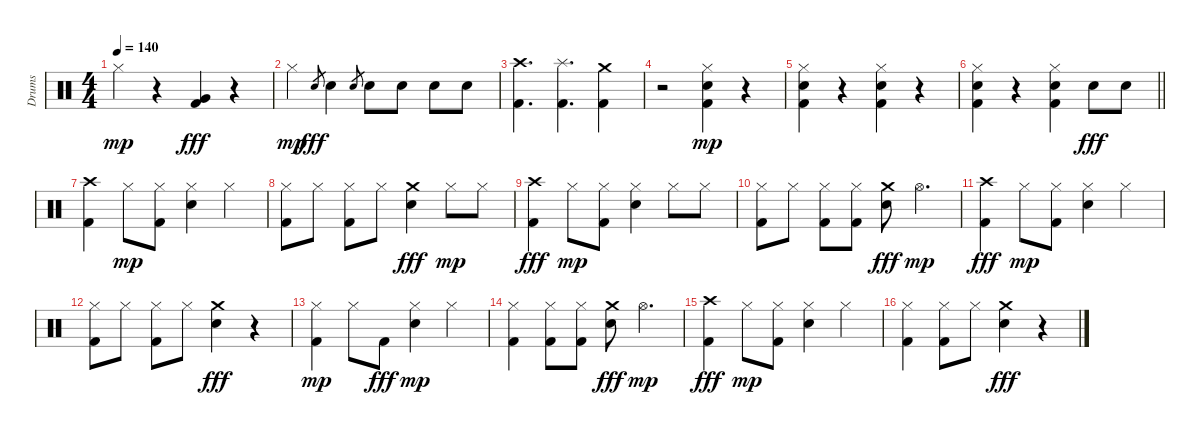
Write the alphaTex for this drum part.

\track ("Drums" "Drums") {instrument percussion}
\staff {score}
\articulation defaults
\ts (4 4)
\tempo 140
\clef neutral
\ks c "Hi-Hat (closed)".4{dy mp}
r.4 ("Kick (hit) 2" "Very Low Tom (hit)").4{dy fff} r.4 |
"Hi-Hat (closed)".4{dy mp} "Electric Snare (hit)".8{gr dy fff} "Electric Snare (hit)".4 "Electric Snare (hit)".8{gr} "Electric Snare (hit)".8 "Electric Snare (hit)".8 "Electric Snare (hit)".8 "Electric Snare (hit)".8 |
("Kick (hit) 2" "Crash high (hit)").4{d} ("Kick (hit) 2" "Splash (hit)").4{d} ("Kick (hit) 2" "Crash medium (hit)").4 |
r.2 ("Kick (hit) 2" "Electric Snare (hit)" "Hi-Hat (closed)").4{dy mp} r.4 |
("Kick (hit) 2" "Electric Snare (hit)" "Hi-Hat (closed)").4 r.4 ("Kick (hit) 2" "Electric Snare (hit)" "Hi-Hat (closed)").4 r.4 |
\barLineRight lightlight
("Kick (hit) 2" "Electric Snare (hit)" "Hi-Hat (closed)").4 r.4 ("Kick (hit) 2" "Electric Snare (hit)" "Hi-Hat (closed)").4 "Electric Snare (hit)".8{dy fff} "Electric Snare (hit)".8 |
("Kick (hit) 2" "Crash high (hit)").4 "Hi-Hat (closed)".8{dy mp} ("Kick (hit) 2" "Hi-Hat (closed)").8 ("Electric Snare (hit)" "Hi-Hat (closed)").4 "Hi-Hat (closed)".4 |
("Kick (hit) 2" "Hi-Hat (closed)").8 "Hi-Hat (closed)".8 ("Kick (hit) 2" "Hi-Hat (closed)").8 "Hi-Hat (closed)".8 ("Electric Snare (hit)" "Crash medium (hit)").4{dy fff} "Hi-Hat (closed)".8{dy mp} "Hi-Hat (closed)".8 |
("Kick (hit) 2" "Crash high (hit)").4{dy fff} "Hi-Hat (closed)".8{dy mp} ("Kick (hit) 2" "Hi-Hat (closed)").8 ("Electric Snare (hit)" "Hi-Hat (closed)").4 "Hi-Hat (closed)".8 "Hi-Hat (closed)".8 |
("Kick (hit) 2" "Hi-Hat (closed)").8 "Hi-Hat (closed)".8 ("Kick (hit) 2" "Hi-Hat (closed)").8 ("Kick (hit) 2" "Hi-Hat (closed)").8 ("Electric Snare (hit)" "Crash medium (hit)").8{dy fff} "Hi-Hat (open)".4{d dy mp} |
("Kick (hit) 2" "Crash high (hit)").4{dy fff} "Hi-Hat (closed)".8{dy mp} ("Kick (hit) 2" "Hi-Hat (closed)").8 ("Electric Snare (hit)" "Hi-Hat (closed)").4 "Hi-Hat (closed)".4 |
("Kick (hit) 2" "Hi-Hat (closed)").8 "Hi-Hat (closed)".8 ("Kick (hit) 2" "Hi-Hat (closed)").8 "Hi-Hat (closed)".8 ("Electric Snare (hit)" "Crash medium (hit)").4{dy fff} r.4 |
("Kick (hit) 2" "Hi-Hat (closed)").4{dy mp} "Hi-Hat (closed)".8 "Kick (hit) 2".8{dy fff} ("Electric Snare (hit)" "Hi-Hat (closed)").4{dy mp} "Hi-Hat (closed)".4 |
("Kick (hit) 2" "Hi-Hat (closed)").4 ("Kick (hit) 2" "Hi-Hat (closed)").8 ("Kick (hit) 2" "Hi-Hat (closed)").8 ("Electric Snare (hit)" "Crash medium (hit)").8{dy fff} "Hi-Hat (open)".4{d dy mp} |
("Kick (hit) 2" "Crash high (hit)").4{dy fff} "Hi-Hat (closed)".8{dy mp} ("Kick (hit) 2" "Hi-Hat (closed)").8 ("Electric Snare (hit)" "Hi-Hat (closed)").4 "Hi-Hat (closed)".4 |
("Kick (hit) 2" "Hi-Hat (closed)").4 ("Kick (hit) 2" "Hi-Hat (closed)").8 "Hi-Hat (closed)".8 ("Electric Snare (hit)" "Crash medium (hit)").4{dy fff} r.4
